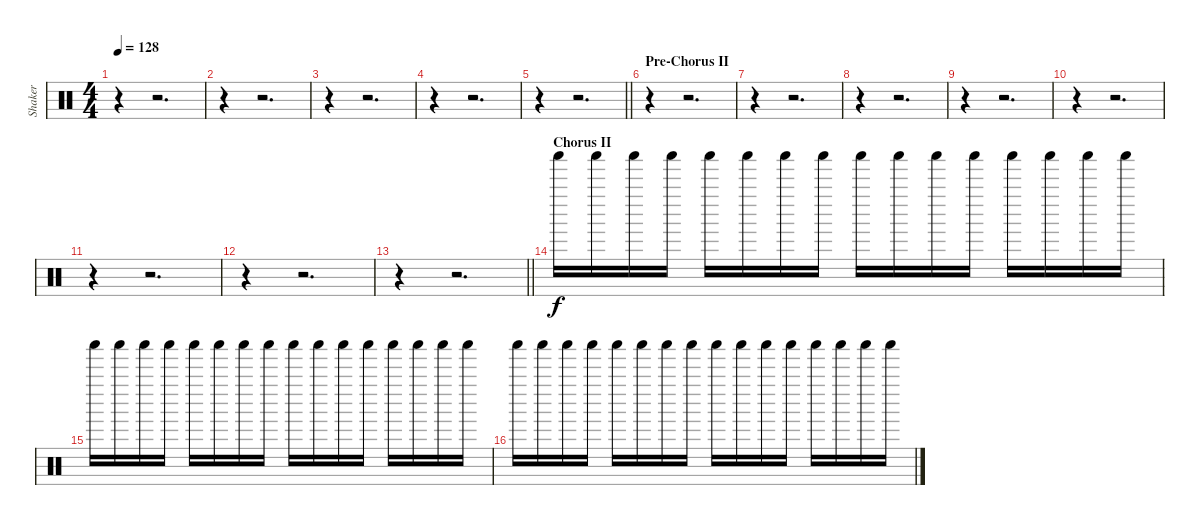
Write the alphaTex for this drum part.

\track ("Shaker" "Shaker") {instrument percussion}
\staff {score}
\articulation defaults
\ts (4 4)
\tempo 128
\clef neutral
\ks c
r.4{dy f} r.2{d} |
r.4 r.2{d} |
r.4 r.2{d} |
r.4 r.2{d} |
\barLineRight lightlight
r.4 r.2{d} |
\section ("" "Pre-Chorus II")
r.4 r.2{d} |
r.4 r.2{d} |
r.4 r.2{d} |
r.4 r.2{d} |
r.4 r.2{d} |
r.4 r.2{d} |
r.4 r.2{d} |
\barLineRight lightlight
r.4 r.2{d} |
\section ("" "Chorus II")
"Shaker (hit)".16 "Shaker (hit)".16 "Shaker (hit)".16 "Shaker (hit)".16 "Shaker (hit)".16 "Shaker (hit)".16 "Shaker (hit)".16 "Shaker (hit)".16 "Shaker (hit)".16 "Shaker (hit)".16 "Shaker (hit)".16 "Shaker (hit)".16 "Shaker (hit)".16 "Shaker (hit)".16 "Shaker (hit)".16 "Shaker (hit)".16 |
"Shaker (hit)".16 "Shaker (hit)".16 "Shaker (hit)".16 "Shaker (hit)".16 "Shaker (hit)".16 "Shaker (hit)".16 "Shaker (hit)".16 "Shaker (hit)".16 "Shaker (hit)".16 "Shaker (hit)".16 "Shaker (hit)".16 "Shaker (hit)".16 "Shaker (hit)".16 "Shaker (hit)".16 "Shaker (hit)".16 "Shaker (hit)".16 |
"Shaker (hit)".16 "Shaker (hit)".16 "Shaker (hit)".16 "Shaker (hit)".16 "Shaker (hit)".16 "Shaker (hit)".16 "Shaker (hit)".16 "Shaker (hit)".16 "Shaker (hit)".16 "Shaker (hit)".16 "Shaker (hit)".16 "Shaker (hit)".16 "Shaker (hit)".16 "Shaker (hit)".16 "Shaker (hit)".16 "Shaker (hit)".16
